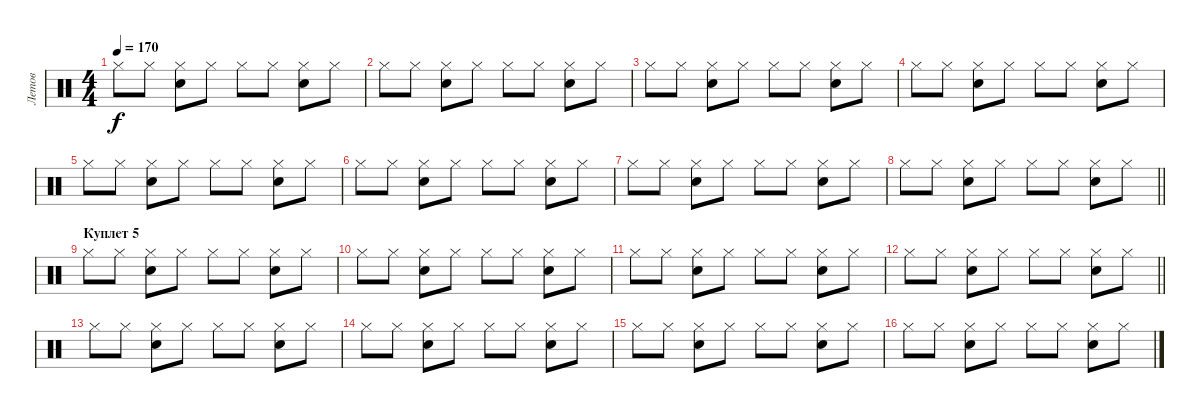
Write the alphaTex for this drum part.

\track ("Летов" "Летов") {instrument percussion}
\staff {score}
\articulation defaults
\ts (4 4)
\tempo 170
\clef neutral
\ks c "Hi-Hat (closed)".8{dy f} "Hi-Hat (closed)".8
("Hi-Hat (closed)" "Electric Snare (hit)").8 "Hi-Hat (closed)".8 "Hi-Hat (closed)".8 "Hi-Hat (closed)".8 ("Hi-Hat (closed)" "Electric Snare (hit)").8 "Hi-Hat (closed)".8 |
"Hi-Hat (closed)".8 "Hi-Hat (closed)".8 ("Hi-Hat (closed)" "Electric Snare (hit)").8 "Hi-Hat (closed)".8 "Hi-Hat (closed)".8 "Hi-Hat (closed)".8 ("Hi-Hat (closed)" "Electric Snare (hit)").8 "Hi-Hat (closed)".8 |
"Hi-Hat (closed)".8 "Hi-Hat (closed)".8 ("Hi-Hat (closed)" "Electric Snare (hit)").8 "Hi-Hat (closed)".8 "Hi-Hat (closed)".8 "Hi-Hat (closed)".8 ("Hi-Hat (closed)" "Electric Snare (hit)").8 "Hi-Hat (closed)".8 |
"Hi-Hat (closed)".8 "Hi-Hat (closed)".8 ("Hi-Hat (closed)" "Electric Snare (hit)").8 "Hi-Hat (closed)".8 "Hi-Hat (closed)".8 "Hi-Hat (closed)".8 ("Hi-Hat (closed)" "Electric Snare (hit)").8 "Hi-Hat (closed)".8 |
"Hi-Hat (closed)".8 "Hi-Hat (closed)".8 ("Hi-Hat (closed)" "Electric Snare (hit)").8 "Hi-Hat (closed)".8 "Hi-Hat (closed)".8 "Hi-Hat (closed)".8 ("Hi-Hat (closed)" "Electric Snare (hit)").8 "Hi-Hat (closed)".8 |
"Hi-Hat (closed)".8 "Hi-Hat (closed)".8 ("Hi-Hat (closed)" "Electric Snare (hit)").8 "Hi-Hat (closed)".8 "Hi-Hat (closed)".8 "Hi-Hat (closed)".8 ("Hi-Hat (closed)" "Electric Snare (hit)").8 "Hi-Hat (closed)".8 |
"Hi-Hat (closed)".8 "Hi-Hat (closed)".8 ("Hi-Hat (closed)" "Electric Snare (hit)").8 "Hi-Hat (closed)".8 "Hi-Hat (closed)".8 "Hi-Hat (closed)".8 ("Hi-Hat (closed)" "Electric Snare (hit)").8 "Hi-Hat (closed)".8 |
\barLineRight lightlight "Hi-Hat (closed)".8 "Hi-Hat (closed)".8
("Hi-Hat (closed)" "Electric Snare (hit)").8 "Hi-Hat (closed)".8 "Hi-Hat (closed)".8 "Hi-Hat (closed)".8 ("Hi-Hat (closed)" "Electric Snare (hit)").8 "Hi-Hat (closed)".8 |
\section ("" "Куплет 5")
"Hi-Hat (closed)".8 "Hi-Hat (closed)".8 ("Hi-Hat (closed)" "Electric Snare (hit)").8 "Hi-Hat (closed)".8 "Hi-Hat (closed)".8 "Hi-Hat (closed)".8 ("Hi-Hat (closed)" "Electric Snare (hit)").8 "Hi-Hat (closed)".8 |
"Hi-Hat (closed)".8 "Hi-Hat (closed)".8 ("Hi-Hat (closed)" "Electric Snare (hit)").8 "Hi-Hat (closed)".8 "Hi-Hat (closed)".8 "Hi-Hat (closed)".8 ("Hi-Hat (closed)" "Electric Snare (hit)").8 "Hi-Hat (closed)".8 |
"Hi-Hat (closed)".8 "Hi-Hat (closed)".8 ("Hi-Hat (closed)" "Electric Snare (hit)").8 "Hi-Hat (closed)".8 "Hi-Hat (closed)".8 "Hi-Hat (closed)".8 ("Hi-Hat (closed)" "Electric Snare (hit)").8 "Hi-Hat (closed)".8 |
\barLineRight lightlight "Hi-Hat (closed)".8 "Hi-Hat (closed)".8
("Hi-Hat (closed)" "Electric Snare (hit)").8 "Hi-Hat (closed)".8 "Hi-Hat (closed)".8 "Hi-Hat (closed)".8 ("Hi-Hat (closed)" "Electric Snare (hit)").8 "Hi-Hat (closed)".8 |
"Hi-Hat (closed)".8 "Hi-Hat (closed)".8 ("Hi-Hat (closed)" "Electric Snare (hit)").8 "Hi-Hat (closed)".8 "Hi-Hat (closed)".8 "Hi-Hat (closed)".8 ("Hi-Hat (closed)" "Electric Snare (hit)").8 "Hi-Hat (closed)".8 |
"Hi-Hat (closed)".8 "Hi-Hat (closed)".8 ("Hi-Hat (closed)" "Electric Snare (hit)").8 "Hi-Hat (closed)".8 "Hi-Hat (closed)".8 "Hi-Hat (closed)".8 ("Hi-Hat (closed)" "Electric Snare (hit)").8 "Hi-Hat (closed)".8 |
"Hi-Hat (closed)".8 "Hi-Hat (closed)".8 ("Hi-Hat (closed)" "Electric Snare (hit)").8 "Hi-Hat (closed)".8 "Hi-Hat (closed)".8 "Hi-Hat (closed)".8 ("Hi-Hat (closed)" "Electric Snare (hit)").8 "Hi-Hat (closed)".8 |
"Hi-Hat (closed)".8 "Hi-Hat (closed)".8 ("Hi-Hat (closed)" "Electric Snare (hit)").8 "Hi-Hat (closed)".8 "Hi-Hat (closed)".8 "Hi-Hat (closed)".8 ("Hi-Hat (closed)" "Electric Snare (hit)").8 "Hi-Hat (closed)".8
